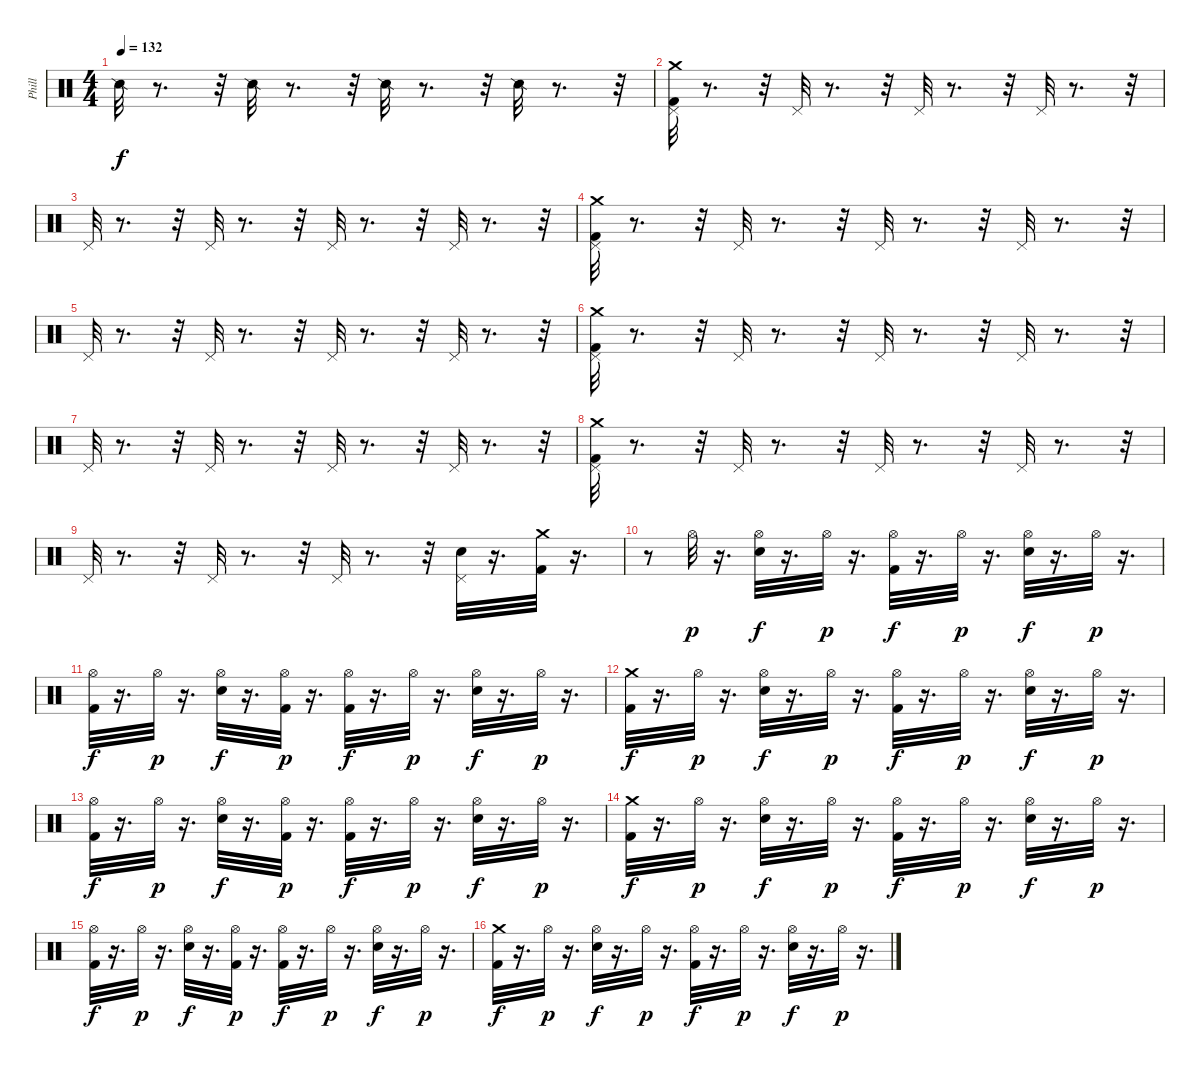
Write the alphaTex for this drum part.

\track ("Phill" "Phill") {instrument percussion}
\staff {score}
\articulation defaults
\ts (4 4)
\tempo 132
\clef neutral
\ks c "Snare (side stick) 2".32{dy f}
r.8{d} r.32 "Snare (side stick) 2".32 r.8{d} r.32 "Snare (side stick) 2".32 r.8{d} r.32 "Snare (side stick) 2".32 r.8{d} r.32 |
("Pedal Hi-Hat (hit)" "Kick (hit) 2" "Crash medium (hit)").32 r.8{d} r.32 "Pedal Hi-Hat (hit)".32 r.8{d} r.32 "Pedal Hi-Hat (hit)".32 r.8{d} r.32 "Pedal Hi-Hat (hit)".32 r.8{d} r.32 |
"Pedal Hi-Hat (hit)".32 r.8{d} r.32 "Pedal Hi-Hat (hit)".32 r.8{d} r.32 "Pedal Hi-Hat (hit)".32 r.8{d} r.32 "Pedal Hi-Hat (hit)".32 r.8{d} r.32 |
("Crash medium (hit)" "Kick (hit) 2" "Pedal Hi-Hat (hit)").32 r.8{d} r.32 "Pedal Hi-Hat (hit)".32 r.8{d} r.32 "Pedal Hi-Hat (hit)".32 r.8{d} r.32 "Pedal Hi-Hat (hit)".32 r.8{d} r.32 |
"Pedal Hi-Hat (hit)".32 r.8{d} r.32 "Pedal Hi-Hat (hit)".32 r.8{d} r.32 "Pedal Hi-Hat (hit)".32 r.8{d} r.32 "Pedal Hi-Hat (hit)".32 r.8{d} r.32 |
("Pedal Hi-Hat (hit)" "Kick (hit) 2" "Crash medium (hit)").32 r.8{d} r.32 "Pedal Hi-Hat (hit)".32 r.8{d} r.32 "Pedal Hi-Hat (hit)".32 r.8{d} r.32 "Pedal Hi-Hat (hit)".32 r.8{d} r.32 |
"Pedal Hi-Hat (hit)".32 r.8{d} r.32 "Pedal Hi-Hat (hit)".32 r.8{d} r.32 "Pedal Hi-Hat (hit)".32 r.8{d} r.32 "Pedal Hi-Hat (hit)".32 r.8{d} r.32 |
("Crash medium (hit)" "Kick (hit) 2" "Pedal Hi-Hat (hit)").32 r.8{d} r.32 "Pedal Hi-Hat (hit)".32 r.8{d} r.32 "Pedal Hi-Hat (hit)".32 r.8{d} r.32 "Pedal Hi-Hat (hit)".32 r.8{d} r.32 |
"Pedal Hi-Hat (hit)".32 r.8{d} r.32 "Pedal Hi-Hat (hit)".32 r.8{d} r.32 "Pedal Hi-Hat (hit)".32 r.8{d} r.32 ("Electric Snare (hit)" "Pedal Hi-Hat (hit)").32 r.16{d} ("Kick (hit) 2" "Crash medium (hit)").32 r.16{d} |
r.8 "Hi-Hat (open)".32{dy p} r.16{d} ("Electric Snare (hit)" "Hi-Hat (open)").32{dy f} r.16{d} "Hi-Hat (open)".32{dy p} r.16{d} ("Hi-Hat (open)" "Kick (hit) 2").32{dy f} r.16{d} "Hi-Hat (open)".32{dy p} r.16{d} ("Hi-Hat (open)" "Electric Snare (hit)").32{dy f} r.16{d} "Hi-Hat (open)".32{dy p} r.16{d} |
("Hi-Hat (open)" "Kick (hit) 2").32{dy f} r.16{d} "Hi-Hat (open)".32{dy p} r.16{d} ("Hi-Hat (open)" "Electric Snare (hit)").32{dy f} r.16{d} ("Kick (hit) 2" "Hi-Hat (open)").32{dy p} r.16{d} ("Hi-Hat (open)" "Kick (hit) 2").32{dy f} r.16{d} "Hi-Hat (open)".32{dy p} r.16{d} ("Hi-Hat (open)" "Electric Snare (hit)").32{dy f} r.16{d} "Hi-Hat (open)".32{dy p} r.16{d} |
("Kick (hit) 2" "Crash medium (hit)").32{dy f} r.16{d} "Hi-Hat (open)".32{dy p} r.16{d} ("Electric Snare (hit)" "Hi-Hat (open)").32{dy f} r.16{d} "Hi-Hat (open)".32{dy p} r.16{d} ("Hi-Hat (open)" "Kick (hit) 2").32{dy f} r.16{d} "Hi-Hat (open)".32{dy p} r.16{d} ("Electric Snare (hit)" "Hi-Hat (open)").32{dy f} r.16{d} "Hi-Hat (open)".32{dy p} r.16{d} |
("Hi-Hat (open)" "Kick (hit) 2").32{dy f} r.16{d} "Hi-Hat (open)".32{dy p} r.16{d} ("Hi-Hat (open)" "Electric Snare (hit)").32{dy f} r.16{d} ("Kick (hit) 2" "Hi-Hat (open)").32{dy p} r.16{d} ("Hi-Hat (open)" "Kick (hit) 2").32{dy f} r.16{d} "Hi-Hat (open)".32{dy p} r.16{d} ("Hi-Hat (open)" "Electric Snare (hit)").32{dy f} r.16{d} "Hi-Hat (open)".32{dy p} r.16{d} |
("Crash medium (hit)" "Kick (hit) 2").32{dy f} r.16{d} "Hi-Hat (open)".32{dy p} r.16{d} ("Electric Snare (hit)" "Hi-Hat (open)").32{dy f} r.16{d} "Hi-Hat (open)".32{dy p} r.16{d} ("Kick (hit) 2" "Hi-Hat (open)").32{dy f} r.16{d} "Hi-Hat (open)".32{dy p} r.16{d} ("Hi-Hat (open)" "Electric Snare (hit)").32{dy f} r.16{d} "Hi-Hat (open)".32{dy p} r.16{d} |
("Hi-Hat (open)" "Kick (hit) 2").32{dy f} r.16{d} "Hi-Hat (open)".32{dy p} r.16{d} ("Hi-Hat (open)" "Electric Snare (hit)").32{dy f} r.16{d} ("Kick (hit) 2" "Hi-Hat (open)").32{dy p} r.16{d} ("Kick (hit) 2" "Hi-Hat (open)").32{dy f} r.16{d} "Hi-Hat (open)".32{dy p} r.16{d} ("Hi-Hat (open)" "Electric Snare (hit)").32{dy f} r.16{d} "Hi-Hat (open)".32{dy p} r.16{d} |
("Kick (hit) 2" "Crash medium (hit)").32{dy f} r.16{d} "Hi-Hat (open)".32{dy p} r.16{d} ("Electric Snare (hit)" "Hi-Hat (open)").32{dy f} r.16{d} "Hi-Hat (open)".32{dy p} r.16{d} ("Kick (hit) 2" "Hi-Hat (open)").32{dy f} r.16{d} "Hi-Hat (open)".32{dy p} r.16{d} ("Hi-Hat (open)" "Electric Snare (hit)").32{dy f} r.16{d} "Hi-Hat (open)".32{dy p} r.16{d}
